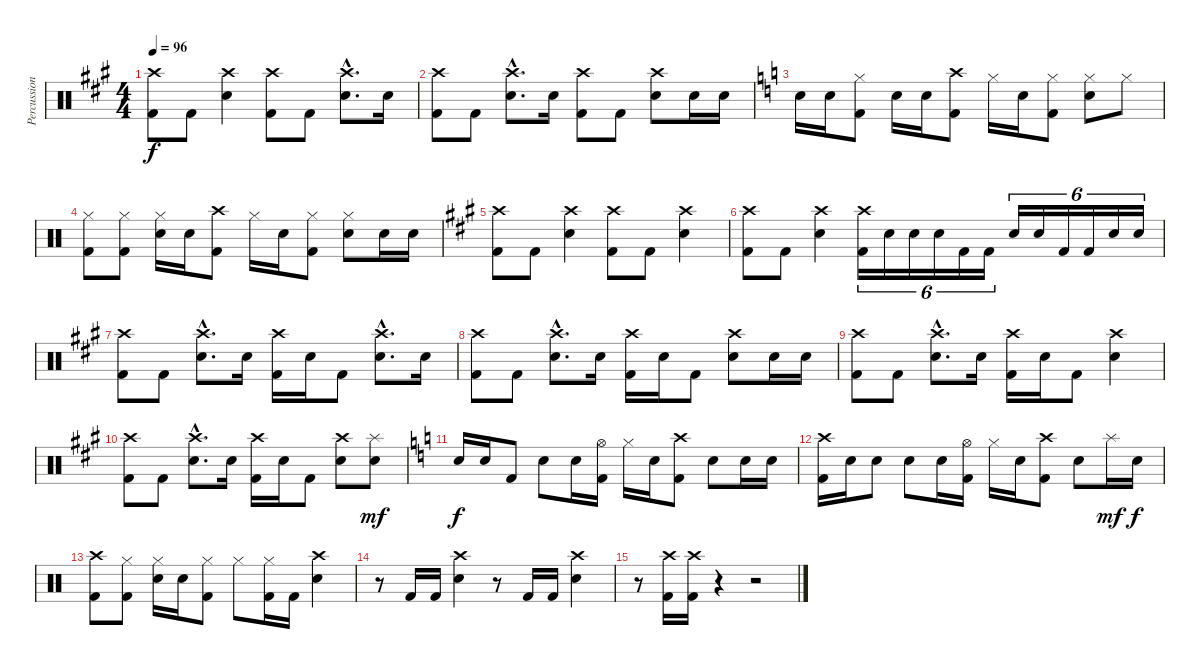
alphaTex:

\track ("Percussion" "Percussion") {instrument percussion}
\staff {score}
\articulation defaults
\ts (4 4)
\tempo 96
\clef neutral
\ks a
("Crash high (hit)" "Kick (hit) 2").8{dy f} "Kick (hit) 2".8 ("Crash high (hit)" "Electric Snare (hit)").4 ("Crash high (hit)" "Kick (hit) 2").8 "Kick (hit) 2".8 ("Crash high (hit)"{hac} "Electric Snare (hit)"{hac}).8{d} "Electric Snare (hit)".16 |
("Crash high (hit)" "Kick (hit) 2").8 "Kick (hit) 2".8 ("Crash high (hit)"{hac} "Electric Snare (hit)"{hac}).8{d} "Electric Snare (hit)".16 ("Crash high (hit)" "Kick (hit) 2").8 "Kick (hit) 2".8 ("Crash high (hit)" "Electric Snare (hit)").8 "Electric Snare (hit)".16 "Electric Snare (hit)".16 |
\ks c "Electric Snare (hit)".16 "Electric Snare (hit)".16
("Hi-Hat (closed)" "Kick (hit) 2").8 "Electric Snare (hit)".16 "Electric Snare (hit)".16 ("Crash high (hit)" "Kick (hit) 2").8 "Hi-Hat (closed)".16 "Electric Snare (hit)".16 ("Hi-Hat (closed)" "Kick (hit) 2").8 ("Hi-Hat (closed)" "Electric Snare (hit)").8 "Hi-Hat (closed)".8 |
("Hi-Hat (closed)" "Kick (hit) 2").8 ("Hi-Hat (closed)" "Kick (hit) 2").8 ("Hi-Hat (closed)" "Electric Snare (hit)").16 "Electric Snare (hit)".16 ("Crash high (hit)" "Kick (hit) 2").8 "Hi-Hat (closed)".16 "Electric Snare (hit)".16 ("Hi-Hat (closed)" "Kick (hit) 2").8 ("Hi-Hat (closed)" "Electric Snare (hit)").8 "Electric Snare (hit)".16 "Electric Snare (hit)".16 |
\ks a
("Crash high (hit)" "Kick (hit) 2").8 "Kick (hit) 2".8 ("Crash high (hit)" "Electric Snare (hit)").4 ("Crash high (hit)" "Kick (hit) 2").8 "Kick (hit) 2".8 ("Crash high (hit)" "Electric Snare (hit)").4 |
("Crash high (hit)" "Kick (hit) 2").8 "Kick (hit) 2".8 ("Crash high (hit)" "Electric Snare (hit)").4 ("Crash high (hit)" "Kick (hit) 2").16{tu (6 4)} "Electric Snare (hit)".16{tu (6 4)} "Electric Snare (hit)".16{tu (6 4)} "Electric Snare (hit)".16{tu (6 4)} "Kick (hit) 2".16{tu (6 4)} "Kick (hit) 2".16{tu (6 4)} "Electric Snare (hit)".16{tu (6 4)} "Electric Snare (hit)".16{tu (6 4)} "Kick (hit) 2".16{tu (6 4)} "Kick (hit) 2".16{tu (6 4)} "Electric Snare (hit)".16{tu (6 4)} "Electric Snare (hit)".16{tu (6 4)} |
("Crash high (hit)" "Kick (hit) 2").8 "Kick (hit) 2".8 ("Crash high (hit)"{hac} "Electric Snare (hit)"{hac}).8{d} "Electric Snare (hit)".16 ("Crash high (hit)" "Kick (hit) 2").16 "Electric Snare (hit)".16 "Kick (hit) 2".8 ("Crash high (hit)"{hac} "Electric Snare (hit)"{hac}).8{d} "Electric Snare (hit)".16 |
("Crash high (hit)" "Kick (hit) 2").8 "Kick (hit) 2".8 ("Crash high (hit)"{hac} "Electric Snare (hit)"{hac}).8{d} "Electric Snare (hit)".16 ("Crash high (hit)" "Kick (hit) 2").16 "Electric Snare (hit)".16 "Kick (hit) 2".8 ("Crash high (hit)" "Electric Snare (hit)").8 "Electric Snare (hit)".16 "Electric Snare (hit)".16 |
("Crash high (hit)" "Kick (hit) 2").8 "Kick (hit) 2".8 ("Crash high (hit)"{hac} "Electric Snare (hit)"{hac}).8{d} "Electric Snare (hit)".16 ("Crash high (hit)" "Kick (hit) 2").16 "Electric Snare (hit)".16 "Kick (hit) 2".8 ("Crash high (hit)" "Electric Snare (hit)").4 |
("Crash high (hit)" "Kick (hit) 2").8 "Kick (hit) 2".8 ("Crash high (hit)"{hac} "Electric Snare (hit)"{hac}).8{d} "Electric Snare (hit)".16 ("Crash high (hit)" "Kick (hit) 2").16 "Electric Snare (hit)".16 "Kick (hit) 2".8 ("Crash high (hit)" "Electric Snare (hit)").8 ("Splash (hit)" "Electric Snare (hit)").8{dy mf} |
\ks c "Electric Snare (hit)".16{dy f} "Electric Snare (hit)".16 "Kick (hit) 2".8 "Electric Snare (hit)".8 "Electric Snare (hit)".16
("Hi-Hat (open)" "Kick (hit) 2").16 "Hi-Hat (closed)".16 "Electric Snare (hit)".16 ("Crash high (hit)" "Kick (hit) 2").8 "Electric Snare (hit)".8 "Electric Snare (hit)".16 "Electric Snare (hit)".16 |
("Crash high (hit)" "Kick (hit) 2").16 "Electric Snare (hit)".16 "Electric Snare (hit)".8 "Electric Snare (hit)".8 "Electric Snare (hit)".16 ("Hi-Hat (open)" "Kick (hit) 2").16 "Hi-Hat (closed)".16 "Electric Snare (hit)".16 ("Crash high (hit)" "Kick (hit) 2").8 "Electric Snare (hit)".8 "Splash (hit)".16{dy mf} "Electric Snare (hit)".16{dy f} |
("Crash high (hit)" "Kick (hit) 2").8 ("Hi-Hat (closed)" "Kick (hit) 2").8 ("Hi-Hat (closed)" "Electric Snare (hit)").16 "Electric Snare (hit)".16 ("Hi-Hat (closed)" "Kick (hit) 2").8 "Hi-Hat (closed)".8 ("Hi-Hat (closed)" "Kick (hit) 2").16 "Kick (hit) 2".16 ("Crash high (hit)" "Electric Snare (hit)").4 |
r.8 "Kick (hit) 2".16 "Kick (hit) 2".16 ("Crash high (hit)" "Electric Snare (hit)").4 r.8 "Kick (hit) 2".16 "Kick (hit) 2".16 ("Crash high (hit)" "Electric Snare (hit)").4 |
r.8 ("Crash high (hit)" "Kick (hit) 2").16 ("Crash high (hit)" "Kick (hit) 2").16 r.4 r.2
